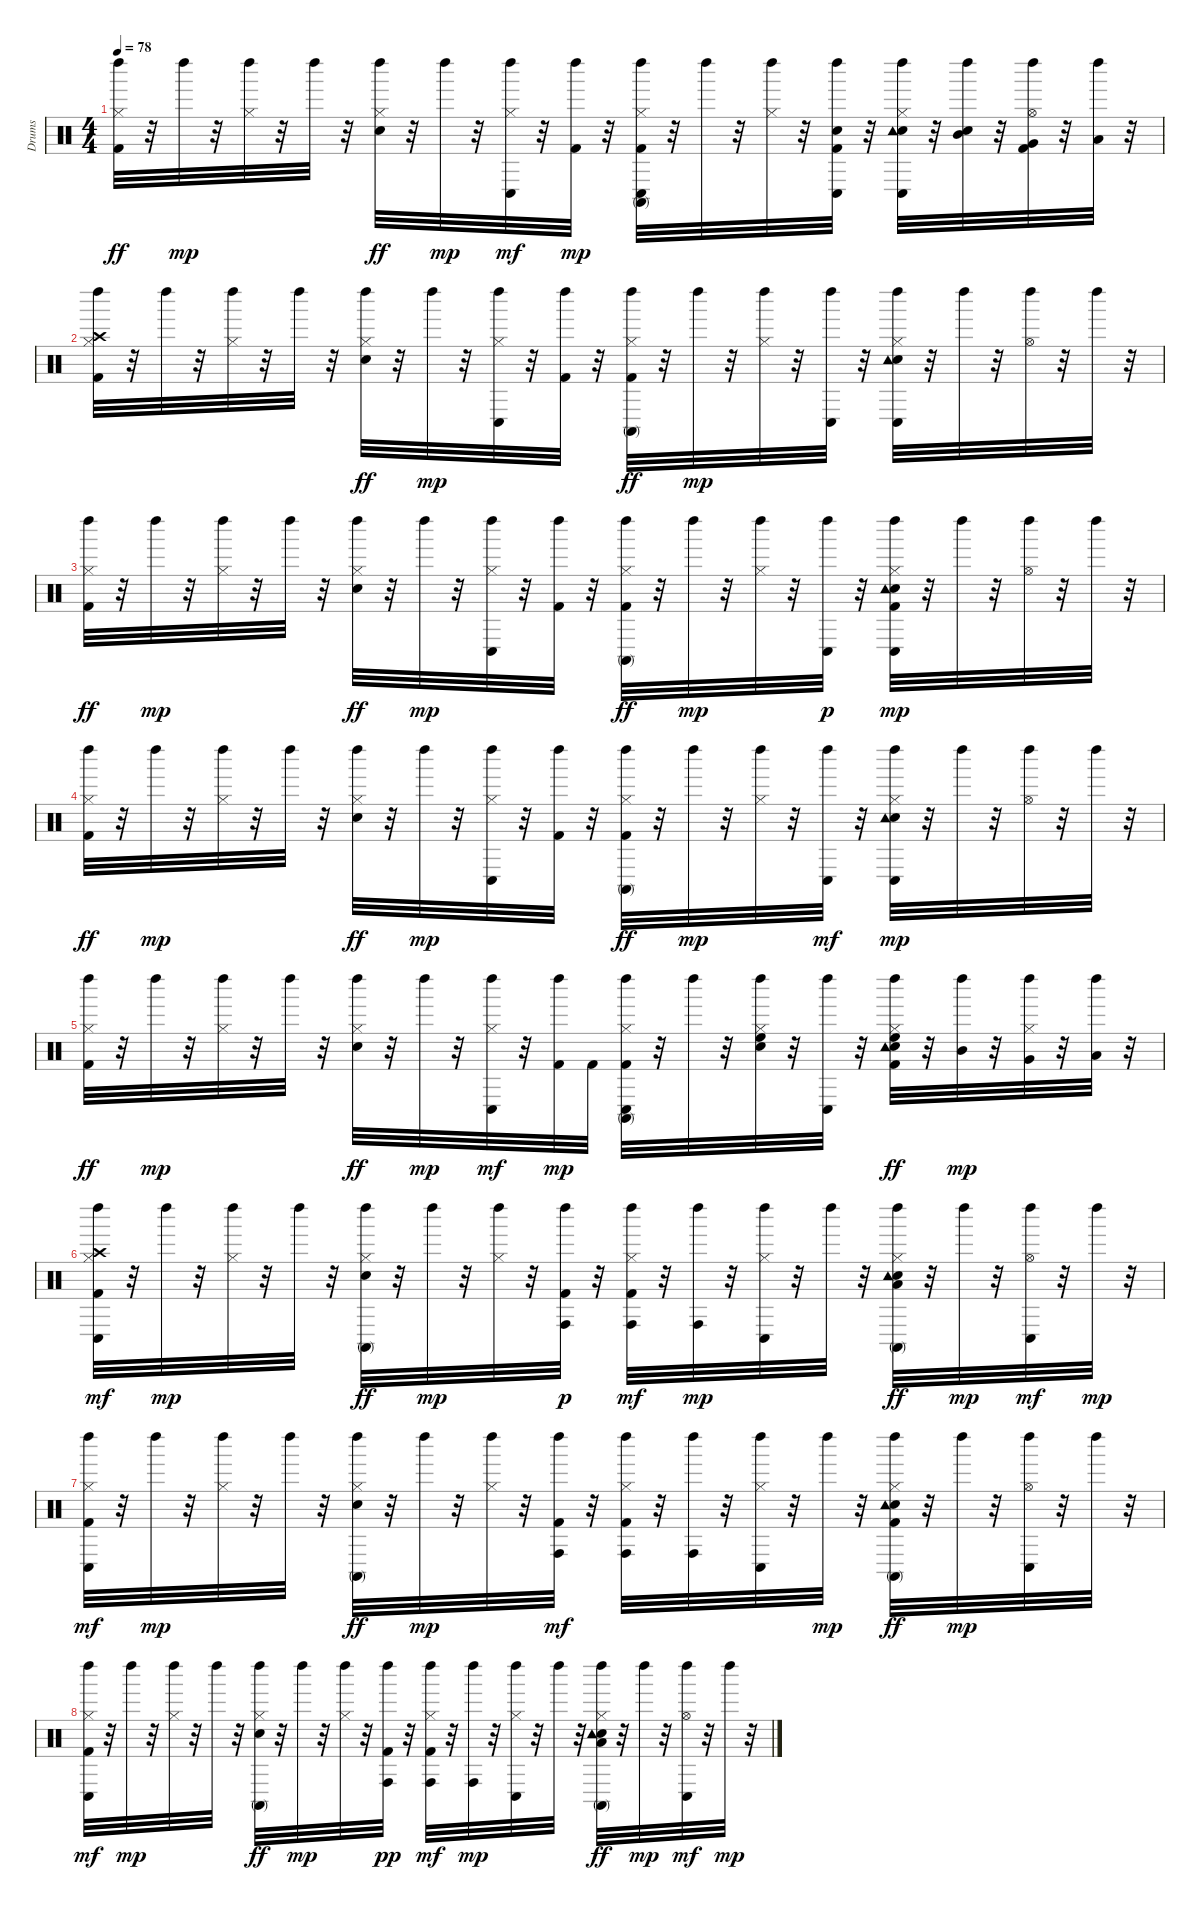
\track ("Drums               " "Drums     ") {instrument percussion}
\staff {score}
\articulation defaults
\ts (4 4)
\tempo 78
\clef neutral
\ks c
("Kick (hit) 2" "Hi-Hat (closed)" "Left Maraca (hit)").32{dy ff} r.32 "Left Maraca (hit)".32{dy mp} r.32 ("Hi-Hat (closed)" "Left Maraca (hit)").32 r.32 "Left Maraca (hit)".32 r.32 ("Snare (hit) 2" "Hi-Hat (closed)" "Left Maraca (hit)").32{dy ff} r.32 "Left Maraca (hit)".32{dy mp} r.32 ("Hi-Hat (closed)" "Left Maraca (hit)" "Conga low (hit)").32{dy mf} r.32 ("Kick (hit) 2" "Left Maraca (hit)").32{dy mp} r.32 ("Kick (hit) 2" "Hi-Hat (closed)" "Left Maraca (hit)" "Conga high (mute)" "Conga low (hit)").32 r.32 "Left Maraca (hit)".32 r.32 ("Hi-Hat (closed)" "Left Maraca (hit)").32 r.32 ("Kick (hit) 2" "Snare (hit) 2" "Left Maraca (hit)" "Conga low (hit)").32 r.32 ("Snare (hit) 2" "Hi-Hat (closed)" "Left Maraca (hit)" "Tambourine (hit)" "Conga low (hit)").32 r.32 ("Snare (hit) 2" "Left Maraca (hit)" "Mid Tom (hit)").32 r.32 ("Kick (hit) 2" "Hi-Hat (open)" "Left Maraca (hit)" "Very Low Tom (hit)").32 r.32 ("Left Maraca (hit)" "Low Floor Tom (hit)").32 r.32 |
("Kick (hit) 2" "Hi-Hat (closed)" "Left Maraca (hit)" "Crash high (hit)").32 r.32 "Left Maraca (hit)".32 r.32 ("Hi-Hat (closed)" "Left Maraca (hit)").32 r.32 "Left Maraca (hit)".32 r.32 ("Snare (hit) 2" "Hi-Hat (closed)" "Left Maraca (hit)").32{dy ff} r.32 "Left Maraca (hit)".32{dy mp} r.32 ("Hi-Hat (closed)" "Left Maraca (hit)" "Conga low (hit)").32 r.32 ("Kick (hit) 2" "Left Maraca (hit)").32 r.32 ("Kick (hit) 2" "Hi-Hat (closed)" "Left Maraca (hit)" "Conga high (mute)").32{dy ff} r.32 "Left Maraca (hit)".32{dy mp} r.32 ("Hi-Hat (closed)" "Left Maraca (hit)").32 r.32 ("Left Maraca (hit)" "Conga low (hit)").32 r.32 ("Snare (hit) 2" "Hi-Hat (closed)" "Left Maraca (hit)" "Tambourine (hit)" "Conga low (hit)").32 r.32 "Left Maraca (hit)".32 r.32 ("Hi-Hat (open)" "Left Maraca (hit)").32 r.32 "Left Maraca (hit)".32 r.32 |
("Kick (hit) 2" "Hi-Hat (closed)" "Left Maraca (hit)").32{dy ff} r.32 "Left Maraca (hit)".32{dy mp} r.32 ("Hi-Hat (closed)" "Left Maraca (hit)").32 r.32 "Left Maraca (hit)".32 r.32 ("Snare (hit) 2" "Hi-Hat (closed)" "Left Maraca (hit)").32{dy ff} r.32 "Left Maraca (hit)".32{dy mp} r.32 ("Hi-Hat (closed)" "Left Maraca (hit)" "Conga low (hit)").32 r.32 ("Kick (hit) 2" "Left Maraca (hit)").32 r.32 ("Kick (hit) 2" "Hi-Hat (closed)" "Left Maraca (hit)" "Conga high (mute)").32{dy ff} r.32 "Left Maraca (hit)".32{dy mp} r.32 ("Hi-Hat (closed)" "Left Maraca (hit)").32 r.32 ("Left Maraca (hit)" "Conga low (hit)").32{dy p} r.32 ("Kick (hit) 2" "Snare (hit) 2" "Hi-Hat (closed)" "Left Maraca (hit)" "Tambourine (hit)" "Conga low (hit)").32{dy mp} r.32 "Left Maraca (hit)".32 r.32 ("Hi-Hat (open)" "Left Maraca (hit)").32 r.32 "Left Maraca (hit)".32 r.32 |
("Kick (hit) 2" "Hi-Hat (closed)" "Left Maraca (hit)").32{dy ff} r.32 "Left Maraca (hit)".32{dy mp} r.32 ("Hi-Hat (closed)" "Left Maraca (hit)").32 r.32 "Left Maraca (hit)".32 r.32 ("Snare (hit) 2" "Hi-Hat (closed)" "Left Maraca (hit)").32{dy ff} r.32 "Left Maraca (hit)".32{dy mp} r.32 ("Hi-Hat (closed)" "Left Maraca (hit)" "Conga low (hit)").32 r.32 ("Kick (hit) 2" "Left Maraca (hit)").32 r.32 ("Kick (hit) 2" "Hi-Hat (closed)" "Left Maraca (hit)" "Conga high (mute)").32{dy ff} r.32 "Left Maraca (hit)".32{dy mp} r.32 ("Hi-Hat (closed)" "Left Maraca (hit)").32 r.32 ("Left Maraca (hit)" "Conga low (hit)").32{dy mf} r.32 ("Snare (hit) 2" "Hi-Hat (closed)" "Left Maraca (hit)" "Tambourine (hit)" "Conga low (hit)").32{dy mp} r.32 "Left Maraca (hit)".32 r.32 ("Hi-Hat (open)" "Left Maraca (hit)").32 r.32 "Left Maraca (hit)".32 r.32 |
("Kick (hit) 2" "Hi-Hat (closed)" "Left Maraca (hit)").32{dy ff} r.32 "Left Maraca (hit)".32{dy mp} r.32 ("Hi-Hat (closed)" "Left Maraca (hit)").32 r.32 "Left Maraca (hit)".32 r.32 ("Snare (hit) 2" "Hi-Hat (closed)" "Left Maraca (hit)").32{dy ff} r.32 "Left Maraca (hit)".32{dy mp} r.32 ("Hi-Hat (closed)" "Left Maraca (hit)" "Conga low (hit)").32{dy mf} r.32 ("Kick (hit) 2" "Left Maraca (hit)").32{dy mp} "Kick (hit) 2".32 ("Kick (hit) 2" "Hi-Hat (closed)" "Left Maraca (hit)" "Conga high (mute)" "Conga low (hit)").32 r.32 "Left Maraca (hit)".32 r.32 ("Snare (hit) 2" "Hi-Hat (closed)" "Left Maraca (hit)" "High Floor Tom (hit)").32 r.32 ("Left Maraca (hit)" "Conga low (hit)").32 r.32 ("Kick (hit) 2" "Snare (hit) 2" "Hi-Hat (closed)" "Left Maraca (hit)" "High Floor Tom (hit)" "Tambourine (hit)").32{dy ff} r.32 ("Left Maraca (hit)" "Mid Tom (hit)").32{dy mp} r.32 ("Hi-Hat (closed)" "Left Maraca (hit)" "Very Low Tom (hit)").32 r.32 ("Left Maraca (hit)" "Low Floor Tom (hit)").32 r.32 |
("Kick (hit) 2" "Hi-Hat (closed)" "Left Maraca (hit)" "Crash high (hit)" "Conga low (hit)").32{dy mf} r.32 "Left Maraca (hit)".32{dy mp} r.32 ("Hi-Hat (closed)" "Left Maraca (hit)").32 r.32 "Left Maraca (hit)".32 r.32 ("Snare (hit) 2" "Hi-Hat (closed)" "Left Maraca (hit)" "Conga high (mute)").32{dy ff} r.32 "Left Maraca (hit)".32{dy mp} r.32 ("Hi-Hat (closed)" "Left Maraca (hit)").32 r.32 ("Kick (hit) 2" "Left Maraca (hit)" "Conga high (hit)").32{dy p} r.32 ("Kick (hit) 2" "Hi-Hat (closed)" "Left Maraca (hit)" "Conga high (hit)").32{dy mf} r.32 ("Left Maraca (hit)" "Conga high (hit)").32{dy mp} r.32 ("Hi-Hat (closed)" "Left Maraca (hit)" "Conga low (hit)").32 r.32 "Left Maraca (hit)".32 r.32 ("Snare (hit) 2" "Hi-Hat (closed)" "Left Maraca (hit)" "Low Floor Tom (hit)" "Conga high (mute)" "Tambourine (hit)").32{dy ff} r.32 "Left Maraca (hit)".32{dy mp} r.32 ("Hi-Hat (open)" "Left Maraca (hit)" "Conga low (hit)").32{dy mf} r.32 "Left Maraca (hit)".32{dy mp} r.32 |
("Kick (hit) 2" "Hi-Hat (closed)" "Left Maraca (hit)" "Conga low (hit)").32{dy mf} r.32 "Left Maraca (hit)".32{dy mp} r.32 ("Hi-Hat (closed)" "Left Maraca (hit)").32 r.32 "Left Maraca (hit)".32 r.32 ("Snare (hit) 2" "Hi-Hat (closed)" "Left Maraca (hit)" "Conga high (mute)").32{dy ff} r.32 "Left Maraca (hit)".32{dy mp} r.32 ("Hi-Hat (closed)" "Left Maraca (hit)").32 r.32 ("Kick (hit) 2" "Left Maraca (hit)" "Conga high (hit)").32{dy mf} r.32 ("Kick (hit) 2" "Hi-Hat (closed)" "Left Maraca (hit)" "Conga high (hit)").32 r.32 ("Left Maraca (hit)" "Conga high (hit)").32 r.32 ("Hi-Hat (closed)" "Left Maraca (hit)" "Conga low (hit)").32 r.32 "Left Maraca (hit)".32{dy mp} r.32 ("Kick (hit) 2" "Snare (hit) 2" "Hi-Hat (closed)" "Left Maraca (hit)" "Conga high (mute)" "Tambourine (hit)").32{dy ff} r.32 "Left Maraca (hit)".32{dy mp} r.32 ("Hi-Hat (open)" "Left Maraca (hit)" "Conga low (hit)").32 r.32 "Left Maraca (hit)".32 r.32 |
("Kick (hit) 2" "Hi-Hat (closed)" "Left Maraca (hit)" "Conga low (hit)").32{dy mf} r.32 "Left Maraca (hit)".32{dy mp} r.32 ("Hi-Hat (closed)" "Left Maraca (hit)").32 r.32 "Left Maraca (hit)".32 r.32 ("Snare (hit) 2" "Hi-Hat (closed)" "Left Maraca (hit)" "Conga high (mute)").32{dy ff} r.32 "Left Maraca (hit)".32{dy mp} r.32 ("Hi-Hat (closed)" "Left Maraca (hit)").32 r.32 ("Kick (hit) 2" "Left Maraca (hit)" "Conga high (hit)").32{dy pp} r.32 ("Kick (hit) 2" "Hi-Hat (closed)" "Left Maraca (hit)" "Conga high (hit)").32{dy mf} r.32 ("Left Maraca (hit)" "Conga high (hit)").32{dy mp} r.32 ("Hi-Hat (closed)" "Left Maraca (hit)" "Conga low (hit)").32 r.32 "Left Maraca (hit)".32 r.32 ("Snare (hit) 2" "Hi-Hat (closed)" "Left Maraca (hit)" "Low Floor Tom (hit)" "Conga high (mute)" "Tambourine (hit)").32{dy ff} r.32 "Left Maraca (hit)".32{dy mp} r.32 ("Hi-Hat (open)" "Left Maraca (hit)" "Conga low (hit)").32{dy mf} r.32 "Left Maraca (hit)".32{dy mp} r.32
